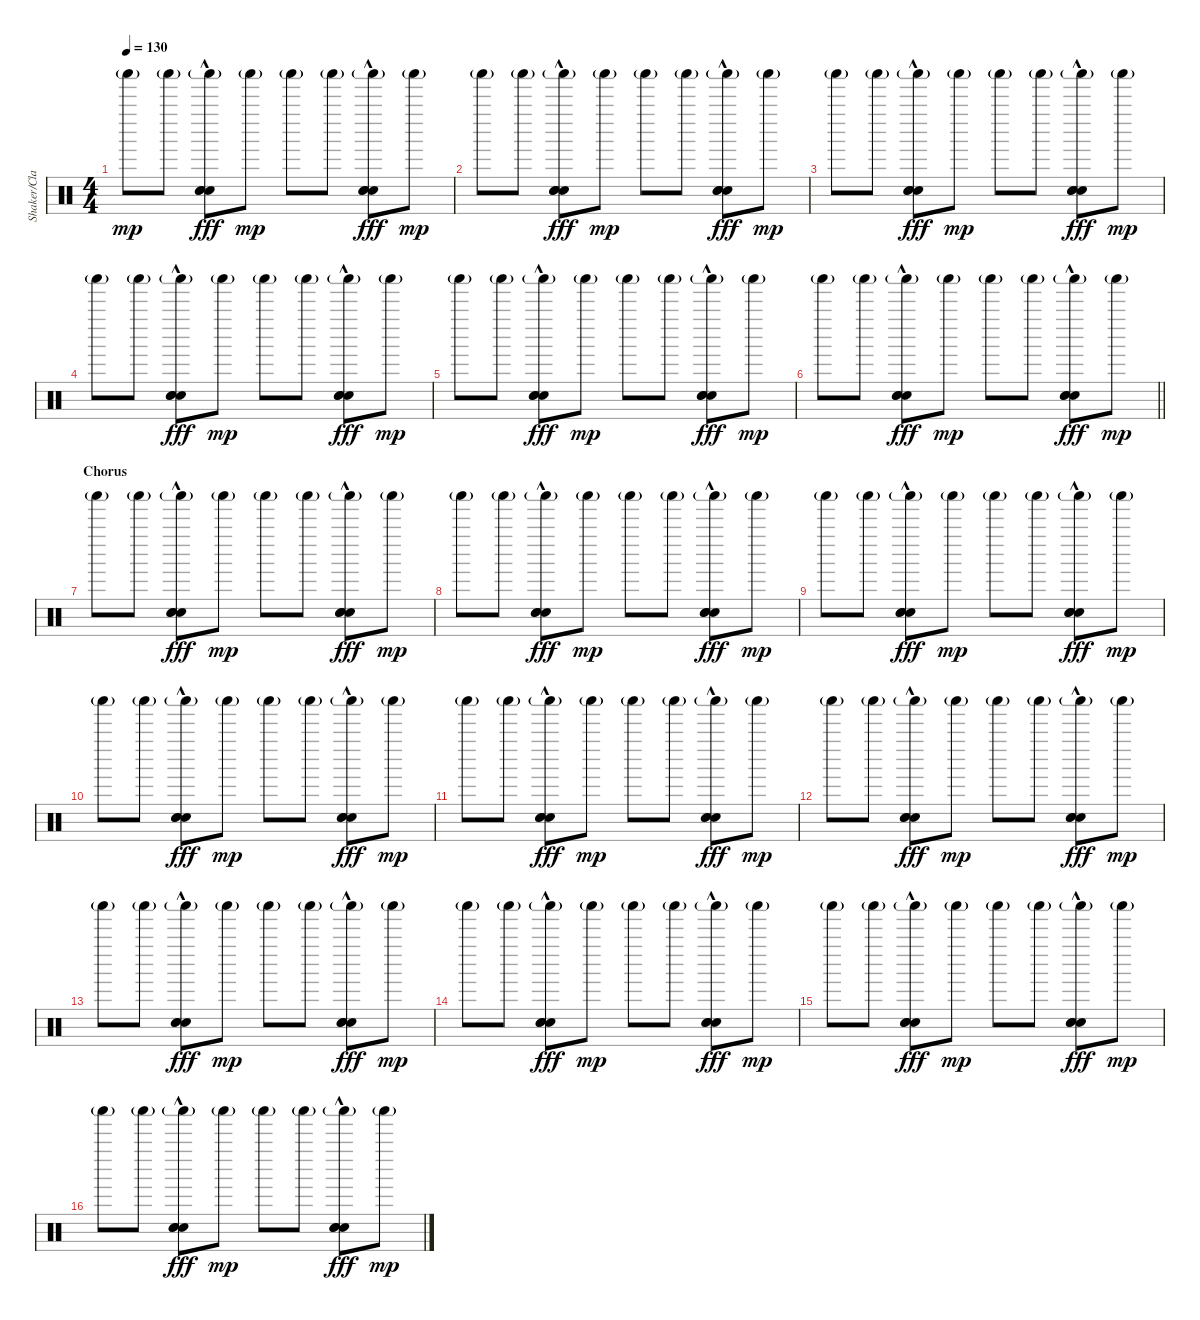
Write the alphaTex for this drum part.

\track ("Shaker/Claps" "Shaker/Cla") {instrument percussion}
\staff {score}
\articulation defaults
\ts (4 4)
\tempo 130
\clef neutral
\ks c "Shaker (hit)"{g}.8{dy mp} "Shaker (hit)"{g}.8
("Shaker (hit)"{g} "Hand Clap (hit)"{hac} "Hand Clap (hit)"{hac} "Hand Clap (hit)"{hac}).8{dy fff} "Shaker (hit)"{g}.8{dy mp} "Shaker (hit)"{g}.8 "Shaker (hit)"{g}.8 ("Shaker (hit)"{g} "Hand Clap (hit)"{hac} "Hand Clap (hit)"{hac} "Hand Clap (hit)"{hac}).8{dy fff} "Shaker (hit)"{g}.8{dy mp} |
"Shaker (hit)"{g}.8 "Shaker (hit)"{g}.8 ("Shaker (hit)"{g} "Hand Clap (hit)"{hac} "Hand Clap (hit)"{hac} "Hand Clap (hit)"{hac}).8{dy fff} "Shaker (hit)"{g}.8{dy mp} "Shaker (hit)"{g}.8 "Shaker (hit)"{g}.8 ("Shaker (hit)"{g} "Hand Clap (hit)"{hac} "Hand Clap (hit)"{hac} "Hand Clap (hit)"{hac}).8{dy fff} "Shaker (hit)"{g}.8{dy mp} |
"Shaker (hit)"{g}.8 "Shaker (hit)"{g}.8 ("Shaker (hit)"{g} "Hand Clap (hit)"{hac} "Hand Clap (hit)"{hac} "Hand Clap (hit)"{hac}).8{dy fff} "Shaker (hit)"{g}.8{dy mp} "Shaker (hit)"{g}.8 "Shaker (hit)"{g}.8 ("Shaker (hit)"{g} "Hand Clap (hit)"{hac} "Hand Clap (hit)"{hac} "Hand Clap (hit)"{hac}).8{dy fff} "Shaker (hit)"{g}.8{dy mp} |
"Shaker (hit)"{g}.8 "Shaker (hit)"{g}.8 ("Shaker (hit)"{g} "Hand Clap (hit)"{hac} "Hand Clap (hit)"{hac} "Hand Clap (hit)"{hac}).8{dy fff} "Shaker (hit)"{g}.8{dy mp} "Shaker (hit)"{g}.8 "Shaker (hit)"{g}.8 ("Shaker (hit)"{g} "Hand Clap (hit)"{hac} "Hand Clap (hit)"{hac} "Hand Clap (hit)"{hac}).8{dy fff} "Shaker (hit)"{g}.8{dy mp} |
"Shaker (hit)"{g}.8 "Shaker (hit)"{g}.8 ("Shaker (hit)"{g} "Hand Clap (hit)"{hac} "Hand Clap (hit)"{hac} "Hand Clap (hit)"{hac}).8{dy fff} "Shaker (hit)"{g}.8{dy mp} "Shaker (hit)"{g}.8 "Shaker (hit)"{g}.8 ("Shaker (hit)"{g} "Hand Clap (hit)"{hac} "Hand Clap (hit)"{hac} "Hand Clap (hit)"{hac}).8{dy fff} "Shaker (hit)"{g}.8{dy mp} |
\barLineRight lightlight "Shaker (hit)"{g}.8 "Shaker (hit)"{g}.8
("Shaker (hit)"{g} "Hand Clap (hit)"{hac} "Hand Clap (hit)"{hac} "Hand Clap (hit)"{hac}).8{dy fff} "Shaker (hit)"{g}.8{dy mp} "Shaker (hit)"{g}.8 "Shaker (hit)"{g}.8 ("Shaker (hit)"{g} "Hand Clap (hit)"{hac} "Hand Clap (hit)"{hac} "Hand Clap (hit)"{hac}).8{dy fff} "Shaker (hit)"{g}.8{dy mp} |
\section ("" "Chorus")
"Shaker (hit)"{g}.8 "Shaker (hit)"{g}.8 ("Shaker (hit)"{g} "Hand Clap (hit)"{hac} "Hand Clap (hit)"{hac} "Hand Clap (hit)"{hac}).8{dy fff} "Shaker (hit)"{g}.8{dy mp} "Shaker (hit)"{g}.8 "Shaker (hit)"{g}.8 ("Shaker (hit)"{g} "Hand Clap (hit)"{hac} "Hand Clap (hit)"{hac} "Hand Clap (hit)"{hac}).8{dy fff} "Shaker (hit)"{g}.8{dy mp} |
"Shaker (hit)"{g}.8 "Shaker (hit)"{g}.8 ("Shaker (hit)"{g} "Hand Clap (hit)"{hac} "Hand Clap (hit)"{hac} "Hand Clap (hit)"{hac}).8{dy fff} "Shaker (hit)"{g}.8{dy mp} "Shaker (hit)"{g}.8 "Shaker (hit)"{g}.8 ("Shaker (hit)"{g} "Hand Clap (hit)"{hac} "Hand Clap (hit)"{hac} "Hand Clap (hit)"{hac}).8{dy fff} "Shaker (hit)"{g}.8{dy mp} |
"Shaker (hit)"{g}.8 "Shaker (hit)"{g}.8 ("Shaker (hit)"{g} "Hand Clap (hit)"{hac} "Hand Clap (hit)"{hac} "Hand Clap (hit)"{hac}).8{dy fff} "Shaker (hit)"{g}.8{dy mp} "Shaker (hit)"{g}.8 "Shaker (hit)"{g}.8 ("Shaker (hit)"{g} "Hand Clap (hit)"{hac} "Hand Clap (hit)"{hac} "Hand Clap (hit)"{hac}).8{dy fff} "Shaker (hit)"{g}.8{dy mp} |
"Shaker (hit)"{g}.8 "Shaker (hit)"{g}.8 ("Shaker (hit)"{g} "Hand Clap (hit)"{hac} "Hand Clap (hit)"{hac} "Hand Clap (hit)"{hac}).8{dy fff} "Shaker (hit)"{g}.8{dy mp} "Shaker (hit)"{g}.8 "Shaker (hit)"{g}.8 ("Shaker (hit)"{g} "Hand Clap (hit)"{hac} "Hand Clap (hit)"{hac} "Hand Clap (hit)"{hac}).8{dy fff} "Shaker (hit)"{g}.8{dy mp} |
"Shaker (hit)"{g}.8 "Shaker (hit)"{g}.8 ("Shaker (hit)"{g} "Hand Clap (hit)"{hac} "Hand Clap (hit)"{hac} "Hand Clap (hit)"{hac}).8{dy fff} "Shaker (hit)"{g}.8{dy mp} "Shaker (hit)"{g}.8 "Shaker (hit)"{g}.8 ("Shaker (hit)"{g} "Hand Clap (hit)"{hac} "Hand Clap (hit)"{hac} "Hand Clap (hit)"{hac}).8{dy fff} "Shaker (hit)"{g}.8{dy mp} |
"Shaker (hit)"{g}.8 "Shaker (hit)"{g}.8 ("Shaker (hit)"{g} "Hand Clap (hit)"{hac} "Hand Clap (hit)"{hac} "Hand Clap (hit)"{hac}).8{dy fff} "Shaker (hit)"{g}.8{dy mp} "Shaker (hit)"{g}.8 "Shaker (hit)"{g}.8 ("Shaker (hit)"{g} "Hand Clap (hit)"{hac} "Hand Clap (hit)"{hac} "Hand Clap (hit)"{hac}).8{dy fff} "Shaker (hit)"{g}.8{dy mp} |
"Shaker (hit)"{g}.8 "Shaker (hit)"{g}.8 ("Shaker (hit)"{g} "Hand Clap (hit)"{hac} "Hand Clap (hit)"{hac} "Hand Clap (hit)"{hac}).8{dy fff} "Shaker (hit)"{g}.8{dy mp} "Shaker (hit)"{g}.8 "Shaker (hit)"{g}.8 ("Shaker (hit)"{g} "Hand Clap (hit)"{hac} "Hand Clap (hit)"{hac} "Hand Clap (hit)"{hac}).8{dy fff} "Shaker (hit)"{g}.8{dy mp} |
"Shaker (hit)"{g}.8 "Shaker (hit)"{g}.8 ("Shaker (hit)"{g} "Hand Clap (hit)"{hac} "Hand Clap (hit)"{hac} "Hand Clap (hit)"{hac}).8{dy fff} "Shaker (hit)"{g}.8{dy mp} "Shaker (hit)"{g}.8 "Shaker (hit)"{g}.8 ("Shaker (hit)"{g} "Hand Clap (hit)"{hac} "Hand Clap (hit)"{hac} "Hand Clap (hit)"{hac}).8{dy fff} "Shaker (hit)"{g}.8{dy mp} |
"Shaker (hit)"{g}.8 "Shaker (hit)"{g}.8 ("Shaker (hit)"{g} "Hand Clap (hit)"{hac} "Hand Clap (hit)"{hac} "Hand Clap (hit)"{hac}).8{dy fff} "Shaker (hit)"{g}.8{dy mp} "Shaker (hit)"{g}.8 "Shaker (hit)"{g}.8 ("Shaker (hit)"{g} "Hand Clap (hit)"{hac} "Hand Clap (hit)"{hac} "Hand Clap (hit)"{hac}).8{dy fff} "Shaker (hit)"{g}.8{dy mp} |
"Shaker (hit)"{g}.8 "Shaker (hit)"{g}.8 ("Shaker (hit)"{g} "Hand Clap (hit)"{hac} "Hand Clap (hit)"{hac} "Hand Clap (hit)"{hac}).8{dy fff} "Shaker (hit)"{g}.8{dy mp} "Shaker (hit)"{g}.8 "Shaker (hit)"{g}.8 ("Shaker (hit)"{g} "Hand Clap (hit)"{hac} "Hand Clap (hit)"{hac} "Hand Clap (hit)"{hac}).8{dy fff} "Shaker (hit)"{g}.8{dy mp}
